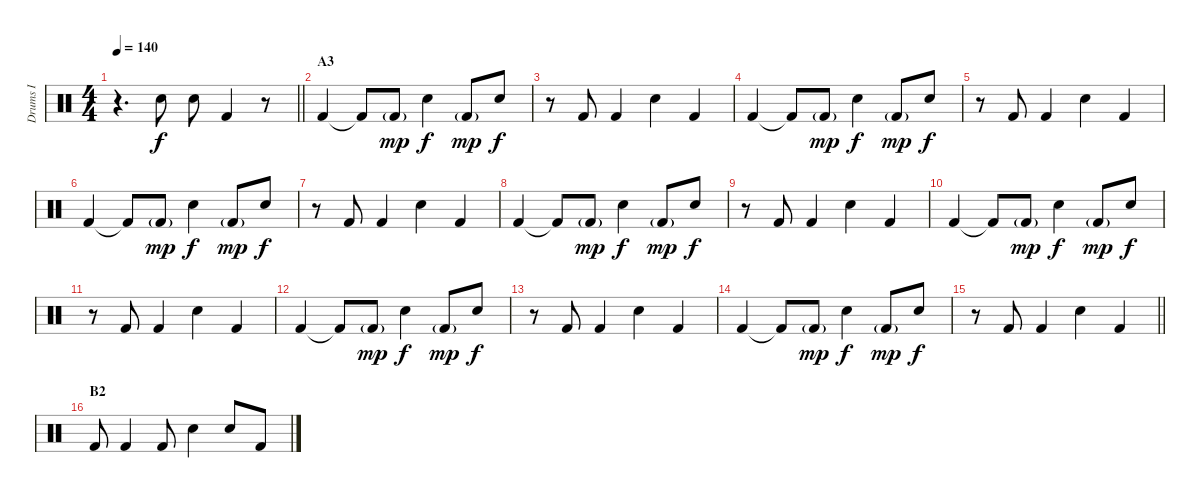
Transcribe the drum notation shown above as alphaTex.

\track ("Drums I" "Drums I") {instrument percussion}
\staff {score}
\articulation defaults
\ts (4 4)
\tempo 140
\clef neutral
\barLineRight lightlight
\ks c
r.4{d dy f} "Electric Snare (hit)".8 "Electric Snare (hit)".8 "Kick (hit) 2".4 r.8 |
\section ("" "A3")
"Kick (hit) 2".4 "Kick (hit) 2"{t}.8 "Kick (hit) 2"{g}.8{dy mp} "Electric Snare (hit)".4{dy f} "Kick (hit) 2"{g}.8{dy mp} "Electric Snare (hit)".8{dy f} |
r.8 "Kick (hit) 2".8 "Kick (hit) 2".4 "Electric Snare (hit)".4 "Kick (hit) 2".4 |
"Kick (hit) 2".4 "Kick (hit) 2"{t}.8 "Kick (hit) 2"{g}.8{dy mp} "Electric Snare (hit)".4{dy f} "Kick (hit) 2"{g}.8{dy mp} "Electric Snare (hit)".8{dy f} |
r.8 "Kick (hit) 2".8 "Kick (hit) 2".4 "Electric Snare (hit)".4 "Kick (hit) 2".4 |
"Kick (hit) 2".4 "Kick (hit) 2"{t}.8 "Kick (hit) 2"{g}.8{dy mp} "Electric Snare (hit)".4{dy f} "Kick (hit) 2"{g}.8{dy mp} "Electric Snare (hit)".8{dy f} |
r.8 "Kick (hit) 2".8 "Kick (hit) 2".4 "Electric Snare (hit)".4 "Kick (hit) 2".4 |
"Kick (hit) 2".4 "Kick (hit) 2"{t}.8 "Kick (hit) 2"{g}.8{dy mp} "Electric Snare (hit)".4{dy f} "Kick (hit) 2"{g}.8{dy mp} "Electric Snare (hit)".8{dy f} |
r.8 "Kick (hit) 2".8 "Kick (hit) 2".4 "Electric Snare (hit)".4 "Kick (hit) 2".4 |
"Kick (hit) 2".4 "Kick (hit) 2"{t}.8 "Kick (hit) 2"{g}.8{dy mp} "Electric Snare (hit)".4{dy f} "Kick (hit) 2"{g}.8{dy mp} "Electric Snare (hit)".8{dy f} |
r.8 "Kick (hit) 2".8 "Kick (hit) 2".4 "Electric Snare (hit)".4 "Kick (hit) 2".4 |
"Kick (hit) 2".4 "Kick (hit) 2"{t}.8 "Kick (hit) 2"{g}.8{dy mp} "Electric Snare (hit)".4{dy f} "Kick (hit) 2"{g}.8{dy mp} "Electric Snare (hit)".8{dy f} |
r.8 "Kick (hit) 2".8 "Kick (hit) 2".4 "Electric Snare (hit)".4 "Kick (hit) 2".4 |
"Kick (hit) 2".4 "Kick (hit) 2"{t}.8 "Kick (hit) 2"{g}.8{dy mp} "Electric Snare (hit)".4{dy f} "Kick (hit) 2"{g}.8{dy mp} "Electric Snare (hit)".8{dy f} |
\barLineRight lightlight
r.8 "Kick (hit) 2".8 "Kick (hit) 2".4 "Electric Snare (hit)".4 "Kick (hit) 2".4 |
\section ("" "B2")
"Kick (hit) 2".8 "Kick (hit) 2".4 "Kick (hit) 2".8 "Electric Snare (hit)".4 "Electric Snare (hit)".8 "Kick (hit) 2".8
